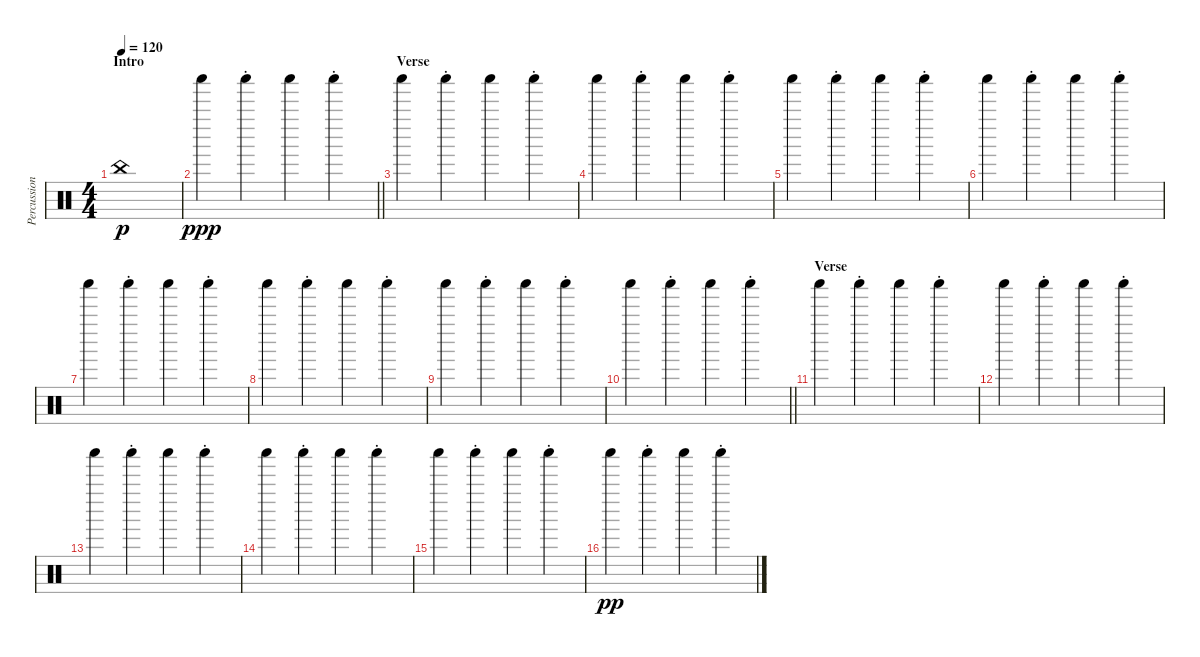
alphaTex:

\track ("Percussion" "Percussion") {instrument percussion}
\staff {score}
\articulation defaults
\ts (4 4)
\section ("" "Intro")
\tempo 120
\clef neutral
\ks c "China (hit)".1{dy p}
|
\barLineRight lightlight "Shaker (hit)".4{dy ppp} "Shaker (hit)"{st}.4 "Shaker (hit)".4 "Shaker (hit)"{st}.4
|
\section ("" "Verse")
"Shaker (hit)".4 "Shaker (hit)"{st}.4 "Shaker (hit)".4 "Shaker (hit)"{st}.4 |
"Shaker (hit)".4 "Shaker (hit)"{st}.4 "Shaker (hit)".4 "Shaker (hit)"{st}.4 |
"Shaker (hit)".4 "Shaker (hit)"{st}.4 "Shaker (hit)".4 "Shaker (hit)"{st}.4 |
"Shaker (hit)".4 "Shaker (hit)"{st}.4 "Shaker (hit)".4 "Shaker (hit)"{st}.4 |
"Shaker (hit)".4 "Shaker (hit)"{st}.4 "Shaker (hit)".4 "Shaker (hit)"{st}.4 |
"Shaker (hit)".4 "Shaker (hit)"{st}.4 "Shaker (hit)".4 "Shaker (hit)"{st}.4 |
"Shaker (hit)".4 "Shaker (hit)"{st}.4 "Shaker (hit)".4 "Shaker (hit)"{st}.4 |
\barLineRight lightlight "Shaker (hit)".4 "Shaker (hit)"{st}.4 "Shaker (hit)".4 "Shaker (hit)"{st}.4
|
\section ("" "Verse")
"Shaker (hit)".4 "Shaker (hit)"{st}.4 "Shaker (hit)".4 "Shaker (hit)"{st}.4 |
"Shaker (hit)".4 "Shaker (hit)"{st}.4 "Shaker (hit)".4 "Shaker (hit)"{st}.4 |
"Shaker (hit)".4 "Shaker (hit)"{st}.4 "Shaker (hit)".4 "Shaker (hit)"{st}.4 |
"Shaker (hit)".4 "Shaker (hit)"{st}.4 "Shaker (hit)".4 "Shaker (hit)"{st}.4 |
"Shaker (hit)".4 "Shaker (hit)"{st}.4 "Shaker (hit)".4 "Shaker (hit)"{st}.4 |
"Shaker (hit)".4{dy pp} "Shaker (hit)"{st}.4 "Shaker (hit)".4 "Shaker (hit)"{st}.4
